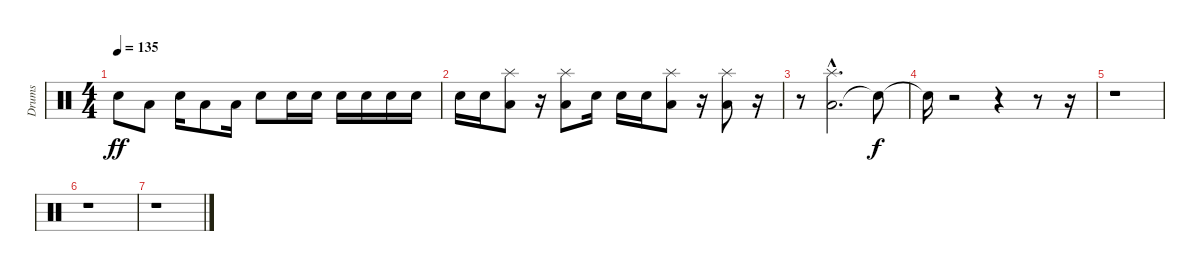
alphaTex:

\track ("Drums" "Drums") {instrument percussion}
\staff {score}
\articulation defaults
\ts (4 4)
\tempo 135
\clef neutral
\ks c "Electric Snare (hit)".8{dy ff} "Low Floor Tom (hit)".8 "Electric Snare (hit)".16 "Low Floor Tom (hit)".8 "Low Floor Tom (hit)".16 "Electric Snare (hit)".8 "Electric Snare (hit)".16 "Electric Snare (hit)".16 "Electric Snare (hit)".16 "Electric Snare (hit)".16 "Electric Snare (hit)".16 "Electric Snare (hit)".16
|
"Electric Snare (hit)".16 "Electric Snare (hit)".16 ("Low Floor Tom (hit)" "Splash (hit)").8 r.16 ("Low Floor Tom (hit)" "Splash (hit)").8 "Electric Snare (hit)".16 "Electric Snare (hit)".16 "Electric Snare (hit)".16 ("Low Floor Tom (hit)" "Splash (hit)").8 r.16 ("Low Floor Tom (hit)" "Splash (hit)").8 r.16 |
r.8 ("Low Floor Tom (hit)" "Splash (hit)"{hac}).2{d} "Snare (hit)"{t}.8{dy f} |
"Snare (hit)"{t}.16 r.2 r.4 r.8 r.16 |
r.1 |
r.1 |
r.1
